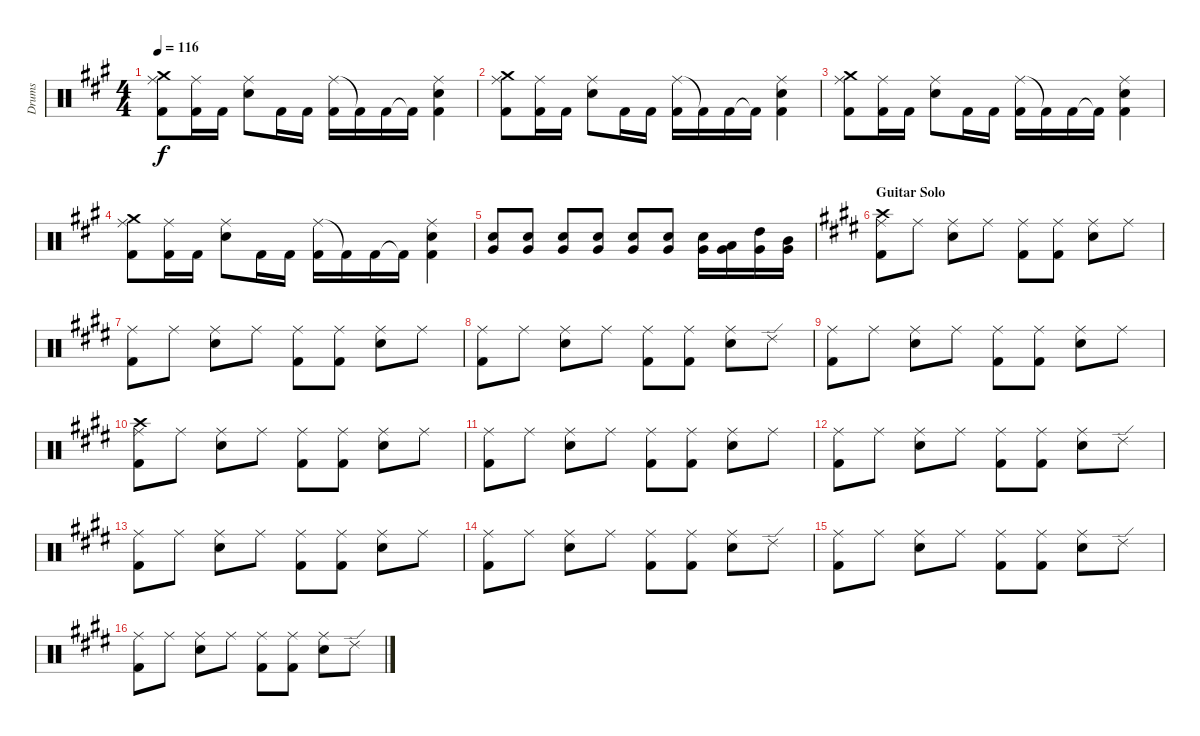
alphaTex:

\track ("Drums" "Drums") {instrument percussion}
\staff {score}
\articulation defaults
\ts (4 4)
\tempo 116
\clef neutral
\ks f#minor
("Crash medium (hit)" "Ride (middle)" "Kick (hit) 2").8{dy f} ("Ride (middle)" "Kick (hit) 2").16 "Kick (hit) 2".16 ("Ride (middle)" "Snare (hit) 2").8 "Kick (hit) 2".16 "Kick (hit) 2".16 ("Ride (middle)" "Kick (hit) 2").16 "Kick (hit) 2"{t}.16 "Kick (hit) 2".16 "Kick (hit) 2"{t}.16 ("Ride (middle)" "Snare (hit) 2" "Kick (hit) 2").4 |
("Crash medium (hit)" "Ride (middle)" "Kick (hit) 2").8 ("Ride (middle)" "Kick (hit) 2").16 "Kick (hit) 2".16 ("Ride (middle)" "Snare (hit) 2").8 "Kick (hit) 2".16 "Kick (hit) 2".16 ("Ride (middle)" "Kick (hit) 2").16 "Kick (hit) 2"{t}.16 "Kick (hit) 2".16 "Kick (hit) 2"{t}.16 ("Ride (middle)" "Snare (hit) 2" "Kick (hit) 2").4 |
("Crash medium (hit)" "Ride (middle)" "Kick (hit) 2").8 ("Ride (middle)" "Kick (hit) 2").16 "Kick (hit) 2".16 ("Ride (middle)" "Snare (hit) 2").8 "Kick (hit) 2".16 "Kick (hit) 2".16 ("Ride (middle)" "Kick (hit) 2").16 "Kick (hit) 2"{t}.16 "Kick (hit) 2".16 "Kick (hit) 2"{t}.16 ("Ride (middle)" "Snare (hit) 2" "Kick (hit) 2").4 |
("Crash medium (hit)" "Ride (middle)" "Kick (hit) 2").8 ("Ride (middle)" "Kick (hit) 2").16 "Kick (hit) 2".16 ("Ride (middle)" "Snare (hit) 2").8 "Kick (hit) 2".16 "Kick (hit) 2".16 ("Ride (middle)" "Kick (hit) 2").16 "Kick (hit) 2"{t}.16 "Kick (hit) 2".16 "Kick (hit) 2"{t}.16 ("Ride (middle)" "Snare (hit) 2" "Kick (hit) 2").4 |
("Snare (hit) 2" "Very Low Tom (hit)").8 ("Snare (hit) 2" "Very Low Tom (hit)").8 ("Snare (hit) 2" "Very Low Tom (hit)").8 ("Snare (hit) 2" "Very Low Tom (hit)").8 ("Snare (hit) 2" "Very Low Tom (hit)").8 ("Snare (hit) 2" "Very Low Tom (hit)").8 ("Snare (hit) 2" "Very Low Tom (hit)").16 ("Low Floor Tom (hit)" "Very Low Tom (hit)").16 ("High Tom (hit)" "Very Low Tom (hit)").16 ("Mid Tom (hit)" "Very Low Tom (hit)").16 |
\section ("" "Guitar Solo")
\ks c#minor
("Ride (middle)" "Crash high (hit)" "Kick (hit) 2").8 "Ride (middle)".8 ("Ride (middle)" "Snare (hit) 2").8 "Ride (middle)".8 ("Ride (middle)" "Kick (hit) 2").8 ("Ride (middle)" "Kick (hit) 2").8 ("Ride (middle)" "Snare (hit) 2").8 "Ride (middle)".8 |
("Ride (middle)" "Kick (hit) 2").8 "Ride (middle)".8 ("Ride (middle)" "Snare (hit) 2").8 "Ride (middle)".8 ("Ride (middle)" "Kick (hit) 2").8 ("Ride (middle)" "Kick (hit) 2").8 ("Ride (middle)" "Snare (hit) 2").8 "Ride (middle)".8 |
("Ride (middle)" "Kick (hit) 2").8 "Ride (middle)".8 ("Ride (middle)" "Snare (hit) 2").8 "Ride (middle)".8 ("Ride (middle)" "Kick (hit) 2").8 ("Ride (middle)" "Kick (hit) 2").8 ("Ride (middle)" "Snare (hit) 2").8 "Ride (edge) 2".8 |
("Ride (middle)" "Kick (hit) 2").8 "Ride (middle)".8 ("Ride (middle)" "Snare (hit) 2").8 "Ride (middle)".8 ("Ride (middle)" "Kick (hit) 2").8 ("Ride (middle)" "Kick (hit) 2").8 ("Ride (middle)" "Snare (hit) 2").8 "Ride (middle)".8 |
("Ride (middle)" "Crash high (hit)" "Kick (hit) 2").8 "Ride (middle)".8 ("Ride (middle)" "Snare (hit) 2").8 "Ride (middle)".8 ("Ride (middle)" "Kick (hit) 2").8 ("Ride (middle)" "Kick (hit) 2").8 ("Ride (middle)" "Snare (hit) 2").8 "Ride (middle)".8 |
("Ride (middle)" "Kick (hit) 2").8 "Ride (middle)".8 ("Ride (middle)" "Snare (hit) 2").8 "Ride (middle)".8 ("Ride (middle)" "Kick (hit) 2").8 ("Ride (middle)" "Kick (hit) 2").8 ("Ride (middle)" "Snare (hit) 2").8 "Ride (middle)".8 |
("Ride (middle)" "Kick (hit) 2").8 "Ride (middle)".8 ("Ride (middle)" "Snare (hit) 2").8 "Ride (middle)".8 ("Ride (middle)" "Kick (hit) 2").8 ("Ride (middle)" "Kick (hit) 2").8 ("Ride (middle)" "Snare (hit) 2").8 "Ride (edge) 2".8 |
("Ride (middle)" "Kick (hit) 2").8 "Ride (middle)".8 ("Ride (middle)" "Snare (hit) 2").8 "Ride (middle)".8 ("Ride (middle)" "Kick (hit) 2").8 ("Ride (middle)" "Kick (hit) 2").8 ("Ride (middle)" "Snare (hit) 2").8 "Ride (middle)".8 |
("Ride (middle)" "Kick (hit) 2").8 "Ride (middle)".8 ("Ride (middle)" "Snare (hit) 2").8 "Ride (middle)".8 ("Ride (middle)" "Kick (hit) 2").8 ("Ride (middle)" "Kick (hit) 2").8 ("Ride (middle)" "Snare (hit) 2").8 "Ride (edge) 2".8 |
("Ride (middle)" "Kick (hit) 2").8 "Ride (middle)".8 ("Ride (middle)" "Snare (hit) 2").8 "Ride (middle)".8 ("Ride (middle)" "Kick (hit) 2").8 ("Ride (middle)" "Kick (hit) 2").8 ("Ride (middle)" "Snare (hit) 2").8 "Ride (edge) 2".8 |
("Ride (middle)" "Kick (hit) 2").8 "Ride (middle)".8 ("Ride (middle)" "Snare (hit) 2").8 "Ride (middle)".8 ("Ride (middle)" "Kick (hit) 2").8 ("Ride (middle)" "Kick (hit) 2").8 ("Ride (middle)" "Snare (hit) 2").8 "Ride (edge) 2".8
